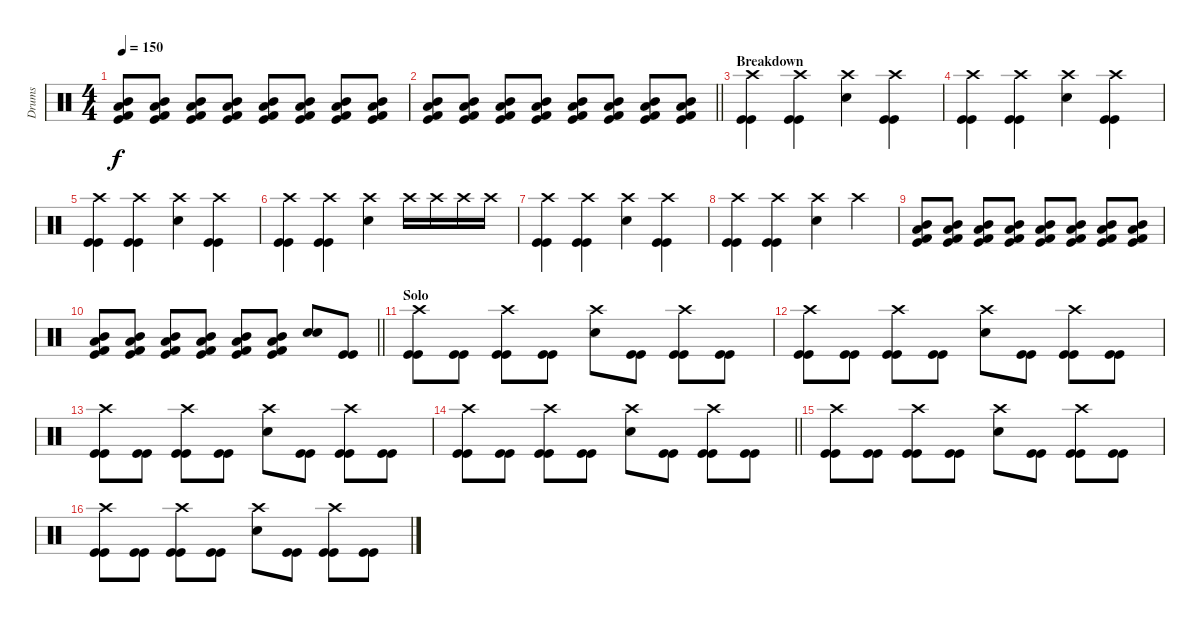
\track ("Drums" "Drums") {instrument percussion}
\staff {score}
\articulation defaults
\ts (4 4)
\tempo 150
\clef neutral
\ks c
("Low Floor Tom (hit)" "Mid Tom (hit)" "Kick (hit)" "Kick (hit) 2").8{dy f} ("Low Floor Tom (hit)" "Mid Tom (hit)" "Kick (hit)" "Kick (hit) 2").8 ("Low Floor Tom (hit)" "Mid Tom (hit)" "Kick (hit)" "Kick (hit) 2").8 ("Low Floor Tom (hit)" "Mid Tom (hit)" "Kick (hit)" "Kick (hit) 2").8 ("Low Floor Tom (hit)" "Mid Tom (hit)" "Kick (hit)" "Kick (hit) 2").8 ("Low Floor Tom (hit)" "Mid Tom (hit)" "Kick (hit)" "Kick (hit) 2").8 ("Low Floor Tom (hit)" "Mid Tom (hit)" "Kick (hit)" "Kick (hit) 2").8 ("Low Floor Tom (hit)" "Mid Tom (hit)" "Kick (hit)" "Kick (hit) 2").8 |
\barLineRight lightlight
("Low Floor Tom (hit)" "Mid Tom (hit)" "Kick (hit)" "Kick (hit) 2").8 ("Low Floor Tom (hit)" "Mid Tom (hit)" "Kick (hit)" "Kick (hit) 2").8 ("Low Floor Tom (hit)" "Mid Tom (hit)" "Kick (hit)" "Kick (hit) 2").8 ("Low Floor Tom (hit)" "Mid Tom (hit)" "Kick (hit)" "Kick (hit) 2").8 ("Low Floor Tom (hit)" "Mid Tom (hit)" "Kick (hit)" "Kick (hit) 2").8 ("Low Floor Tom (hit)" "Mid Tom (hit)" "Kick (hit)" "Kick (hit) 2").8 ("Low Floor Tom (hit)" "Mid Tom (hit)" "Kick (hit)" "Kick (hit) 2").8 ("Low Floor Tom (hit)" "Mid Tom (hit)" "Kick (hit)" "Kick (hit) 2").8 |
\section ("" "Breakdown")
("Crash high (hit)" "Kick (hit)" "Kick (hit)").4 ("Crash high (hit)" "Kick (hit)" "Kick (hit)").4 ("Crash high (hit)" "Snare (hit) 2").4 ("Crash high (hit)" "Kick (hit)" "Kick (hit)").4 |
("Crash high (hit)" "Kick (hit)" "Kick (hit)").4 ("Crash high (hit)" "Kick (hit)" "Kick (hit)").4 ("Crash high (hit)" "Snare (hit) 2").4 ("Crash high (hit)" "Kick (hit)" "Kick (hit)").4 |
("Crash high (hit)" "Kick (hit)" "Kick (hit)").4 ("Crash high (hit)" "Kick (hit)" "Kick (hit)").4 ("Crash high (hit)" "Snare (hit) 2").4 ("Crash high (hit)" "Kick (hit)" "Kick (hit)").4 |
("Crash high (hit)" "Kick (hit)" "Kick (hit)").4 ("Crash high (hit)" "Kick (hit)" "Kick (hit)").4 ("Crash high (hit)" "Snare (hit) 2").4 "Crash high (hit)".16 "Crash high (hit)".16 "Crash high (hit)".16 "Crash high (hit)".16 |
("Crash high (hit)" "Kick (hit)" "Kick (hit)").4 ("Crash high (hit)" "Kick (hit)" "Kick (hit)").4 ("Crash high (hit)" "Snare (hit) 2").4 ("Crash high (hit)" "Kick (hit)" "Kick (hit)").4 |
("Crash high (hit)" "Kick (hit)" "Kick (hit)").4 ("Crash high (hit)" "Kick (hit)" "Kick (hit)").4 ("Crash high (hit)" "Snare (hit) 2").4 "Crash high (hit)".4 |
("Low Floor Tom (hit)" "Mid Tom (hit)" "Kick (hit)" "Kick (hit) 2").8 ("Low Floor Tom (hit)" "Mid Tom (hit)" "Kick (hit)" "Kick (hit) 2").8 ("Low Floor Tom (hit)" "Mid Tom (hit)" "Kick (hit)" "Kick (hit) 2").8 ("Low Floor Tom (hit)" "Mid Tom (hit)" "Kick (hit)" "Kick (hit) 2").8 ("Low Floor Tom (hit)" "Mid Tom (hit)" "Kick (hit)" "Kick (hit) 2").8 ("Low Floor Tom (hit)" "Mid Tom (hit)" "Kick (hit)" "Kick (hit) 2").8 ("Low Floor Tom (hit)" "Mid Tom (hit)" "Kick (hit)" "Kick (hit) 2").8 ("Low Floor Tom (hit)" "Mid Tom (hit)" "Kick (hit)" "Kick (hit) 2").8 |
\barLineRight lightlight
("Low Floor Tom (hit)" "Mid Tom (hit)" "Kick (hit)" "Kick (hit) 2").8 ("Low Floor Tom (hit)" "Mid Tom (hit)" "Kick (hit)" "Kick (hit) 2").8 ("Low Floor Tom (hit)" "Mid Tom (hit)" "Kick (hit)" "Kick (hit) 2").8 ("Low Floor Tom (hit)" "Mid Tom (hit)" "Kick (hit)" "Kick (hit) 2").8 ("Low Floor Tom (hit)" "Mid Tom (hit)" "Kick (hit)" "Kick (hit) 2").8 ("Low Floor Tom (hit)" "Mid Tom (hit)" "Kick (hit)" "Kick (hit) 2").8 ("Snare (hit) 2" "Snare (hit) 2").8 ("Kick (hit)" "Kick (hit)").8 |
\section ("" "Solo")
("Crash high (hit)" "Kick (hit)" "Kick (hit)").8 ("Kick (hit)" "Kick (hit)").8 ("Crash high (hit)" "Kick (hit)" "Kick (hit)").8 ("Kick (hit)" "Kick (hit)").8 ("Crash high (hit)" "Snare (hit) 2").8 ("Kick (hit)" "Kick (hit)").8 ("Crash high (hit)" "Kick (hit)" "Kick (hit)").8 ("Kick (hit)" "Kick (hit)").8 |
("Crash high (hit)" "Kick (hit)" "Kick (hit)").8 ("Kick (hit)" "Kick (hit)").8 ("Crash high (hit)" "Kick (hit)" "Kick (hit)").8 ("Kick (hit)" "Kick (hit)").8 ("Crash high (hit)" "Snare (hit) 2").8 ("Kick (hit)" "Kick (hit)").8 ("Crash high (hit)" "Kick (hit)" "Kick (hit)").8 ("Kick (hit)" "Kick (hit)").8 |
("Crash high (hit)" "Kick (hit)" "Kick (hit)").8 ("Kick (hit)" "Kick (hit)").8 ("Crash high (hit)" "Kick (hit)" "Kick (hit)").8 ("Kick (hit)" "Kick (hit)").8 ("Crash high (hit)" "Snare (hit) 2").8 ("Kick (hit)" "Kick (hit)").8 ("Crash high (hit)" "Kick (hit)" "Kick (hit)").8 ("Kick (hit)" "Kick (hit)").8 |
\barLineRight lightlight
("Crash high (hit)" "Kick (hit)" "Kick (hit)").8 ("Kick (hit)" "Kick (hit)").8 ("Crash high (hit)" "Kick (hit)" "Kick (hit)").8 ("Kick (hit)" "Kick (hit)").8 ("Crash high (hit)" "Snare (hit) 2").8 ("Kick (hit)" "Kick (hit)").8 ("Crash high (hit)" "Kick (hit)" "Kick (hit)").8 ("Kick (hit)" "Kick (hit)").8 |
("Crash high (hit)" "Kick (hit)" "Kick (hit)").8 ("Kick (hit)" "Kick (hit)").8 ("Crash high (hit)" "Kick (hit)" "Kick (hit)").8 ("Kick (hit)" "Kick (hit)").8 ("Crash high (hit)" "Snare (hit) 2").8 ("Kick (hit)" "Kick (hit)").8 ("Crash high (hit)" "Kick (hit)" "Kick (hit)").8 ("Kick (hit)" "Kick (hit)").8 |
("Crash high (hit)" "Kick (hit)" "Kick (hit)").8 ("Kick (hit)" "Kick (hit)").8 ("Crash high (hit)" "Kick (hit)" "Kick (hit)").8 ("Kick (hit)" "Kick (hit)").8 ("Crash high (hit)" "Snare (hit) 2").8 ("Kick (hit)" "Kick (hit)").8 ("Crash high (hit)" "Kick (hit)" "Kick (hit)").8 ("Kick (hit)" "Kick (hit)").8
